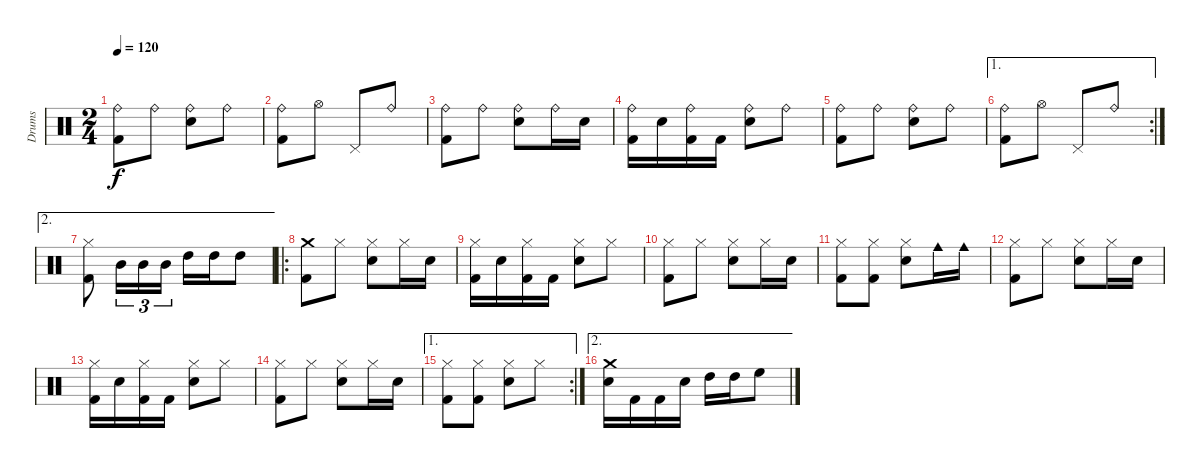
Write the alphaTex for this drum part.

\track ("Drums" "Drums") {instrument percussion}
\staff {score}
\articulation defaults
\ts (2 4)
\tempo 120
\clef neutral
\ks aminor
("Ride (bell)" "Kick (hit) 2").8{dy f} "Ride (bell)".8 ("Ride (bell)" "Electric Snare (hit)").8 "Ride (bell)".8 |
("Kick (hit) 2" "Ride (bell)").8 "Hi-Hat (open)".8 "Pedal Hi-Hat (hit)".8 "Ride (bell)".8 |
("Ride (bell)" "Kick (hit) 2").8 "Ride (bell)".8 ("Ride (bell)" "Electric Snare (hit)").8 "Ride (bell)".16 "Electric Snare (hit)".16 |
("Kick (hit) 2" "Ride (bell)").16 "Electric Snare (hit)".16 ("Kick (hit) 2" "Ride (bell)").16 "Kick (hit) 2".16 ("Electric Snare (hit)" "Ride (bell)").8 "Ride (bell)".8 |
("Ride (bell)" "Kick (hit) 2").8 "Ride (bell)".8 ("Ride (bell)" "Electric Snare (hit)").8 "Ride (bell)".8 |
\ae 1
\rc 2
("Kick (hit) 2" "Ride (bell)").8 "Hi-Hat (open)".8 "Pedal Hi-Hat (hit)".8 "Ride (bell)".8 |
\ae 2
("Hi-Hat (closed)" "Kick (hit) 2").8 "Mid Tom (hit)".16{tu (3 2)} "Mid Tom (hit)".16{tu (3 2)} "Mid Tom (hit)".16{tu (3 2)} "High Tom (hit)".16 "High Tom (hit)".16 "High Tom (hit)".8 |
\ro
("Crash medium (hit)" "Kick (hit) 2").8 "Hi-Hat (closed)".8 ("Hi-Hat (closed)" "Electric Snare (hit)").8 "Hi-Hat (closed)".16 "Electric Snare (hit)".16 |
("Kick (hit) 2" "Hi-Hat (closed)").16 "Electric Snare (hit)".16 ("Kick (hit) 2" "Hi-Hat (closed)").16 "Kick (hit) 2".16 ("Electric Snare (hit)" "Hi-Hat (closed)").8 "Hi-Hat (closed)".8 |
("Hi-Hat (closed)" "Kick (hit) 2").8 "Hi-Hat (closed)".8 ("Hi-Hat (closed)" "Electric Snare (hit)").8 "Hi-Hat (closed)".16 "Electric Snare (hit)".16 |
("Kick (hit) 2" "Hi-Hat (closed)").8 ("Kick (hit) 2" "Hi-Hat (closed)").8 ("Electric Snare (hit)" "Hi-Hat (closed)").8 "Cowbell medium (hit)".16 "Cowbell medium (hit)".16 |
("Hi-Hat (closed)" "Kick (hit) 2").8 "Hi-Hat (closed)".8 ("Hi-Hat (closed)" "Electric Snare (hit)").8 "Hi-Hat (closed)".16 "Electric Snare (hit)".16 |
("Kick (hit) 2" "Hi-Hat (closed)").16 "Electric Snare (hit)".16 ("Kick (hit) 2" "Hi-Hat (closed)").16 "Kick (hit) 2".16 ("Electric Snare (hit)" "Hi-Hat (closed)").8 "Hi-Hat (closed)".8 |
("Hi-Hat (closed)" "Kick (hit) 2").8 "Hi-Hat (closed)".8 ("Hi-Hat (closed)" "Electric Snare (hit)").8 "Hi-Hat (closed)".16 "Electric Snare (hit)".16 |
\ae 1
\rc 2
("Kick (hit) 2" "Hi-Hat (closed)").8 ("Kick (hit) 2" "Hi-Hat (closed)").8 ("Electric Snare (hit)" "Hi-Hat (closed)").8 "Hi-Hat (closed)".8 |
\ae 2
("Electric Snare (hit)" "Crash medium (hit)").16 "Kick (hit) 2".16 "Kick (hit) 2".16 "Electric Snare (hit)".16 "High Tom (hit)".16 "High Tom (hit)".16 "High Floor Tom (hit)".8
